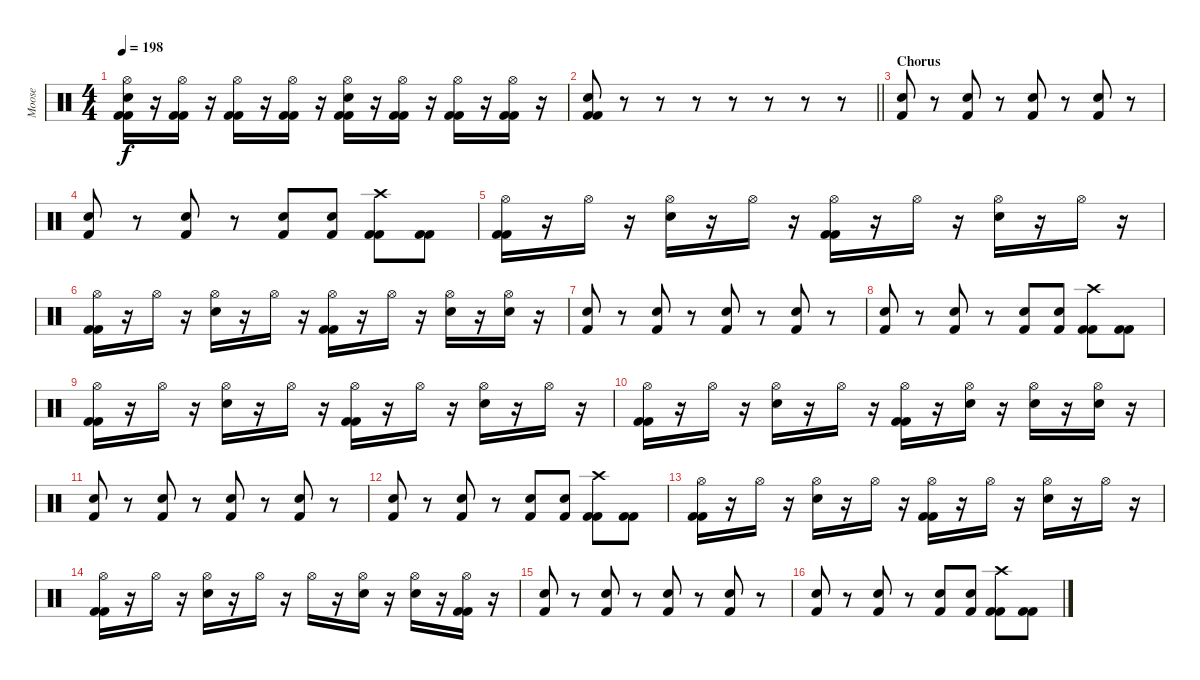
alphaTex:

\track ("Moose" "Moose") {instrument percussion}
\staff {score}
\articulation defaults
\ts (4 4)
\tempo 198
\clef neutral
\ks c
("Hi-Hat (open)" "Electric Snare (hit)" "Kick (hit) 2" "Kick (hit) 2").16{dy f} r.16 ("Hi-Hat (open)" "Kick (hit) 2" "Kick (hit) 2").16 r.16 ("Hi-Hat (open)" "Kick (hit) 2" "Kick (hit) 2").16 r.16 ("Hi-Hat (open)" "Kick (hit) 2" "Kick (hit) 2").16 r.16 ("Hi-Hat (open)" "Electric Snare (hit)" "Kick (hit) 2" "Kick (hit) 2").16 r.16 ("Hi-Hat (open)" "Kick (hit) 2" "Kick (hit) 2").16 r.16 ("Hi-Hat (open)" "Kick (hit) 2" "Kick (hit) 2").16 r.16 ("Hi-Hat (open)" "Kick (hit) 2" "Kick (hit) 2").16 r.16 |
\barLineRight lightlight
("Electric Snare (hit)" "Kick (hit) 2" "Kick (hit) 2").8 r.8 r.8 r.8 r.8 r.8 r.8 r.8 |
\section ("" "Chorus")
("Electric Snare (hit)" "Kick (hit) 2").8 r.8 ("Electric Snare (hit)" "Kick (hit) 2").8 r.8 ("Electric Snare (hit)" "Kick (hit) 2").8 r.8 ("Electric Snare (hit)" "Kick (hit) 2").8 r.8 |
("Electric Snare (hit)" "Kick (hit) 2").8 r.8 ("Electric Snare (hit)" "Kick (hit) 2").8 r.8 ("Electric Snare (hit)" "Kick (hit) 2").8 ("Electric Snare (hit)" "Kick (hit) 2").8 ("Crash high (hit)" "Kick (hit) 2" "Kick (hit) 2").8 ("Kick (hit) 2" "Kick (hit) 2").8 |
("Hi-Hat (open)" "Kick (hit) 2" "Kick (hit) 2").16 r.16 "Hi-Hat (open)".16 r.16 ("Hi-Hat (open)" "Electric Snare (hit)").16 r.16 "Hi-Hat (open)".16 r.16 ("Hi-Hat (open)" "Kick (hit) 2" "Kick (hit) 2").16 r.16 "Hi-Hat (open)".16 r.16 ("Hi-Hat (open)" "Electric Snare (hit)").16 r.16 "Hi-Hat (open)".16 r.16 |
("Hi-Hat (open)" "Kick (hit) 2" "Kick (hit) 2").16 r.16 "Hi-Hat (open)".16 r.16 ("Hi-Hat (open)" "Electric Snare (hit)").16 r.16 "Hi-Hat (open)".16 r.16 ("Hi-Hat (open)" "Kick (hit) 2" "Kick (hit) 2").16 r.16 "Hi-Hat (open)".16 r.16 ("Hi-Hat (open)" "Electric Snare (hit)").16 r.16 ("Hi-Hat (open)" "Electric Snare (hit)").16 r.16 |
("Electric Snare (hit)" "Kick (hit) 2").8 r.8 ("Electric Snare (hit)" "Kick (hit) 2").8 r.8 ("Electric Snare (hit)" "Kick (hit) 2").8 r.8 ("Electric Snare (hit)" "Kick (hit) 2").8 r.8 |
("Electric Snare (hit)" "Kick (hit) 2").8 r.8 ("Electric Snare (hit)" "Kick (hit) 2").8 r.8 ("Electric Snare (hit)" "Kick (hit) 2").8 ("Electric Snare (hit)" "Kick (hit) 2").8 ("Crash high (hit)" "Kick (hit) 2" "Kick (hit) 2").8 ("Kick (hit) 2" "Kick (hit) 2").8 |
("Hi-Hat (open)" "Kick (hit) 2" "Kick (hit) 2").16 r.16 "Hi-Hat (open)".16 r.16 ("Hi-Hat (open)" "Electric Snare (hit)").16 r.16 "Hi-Hat (open)".16 r.16 ("Hi-Hat (open)" "Kick (hit) 2" "Kick (hit) 2").16 r.16 "Hi-Hat (open)".16 r.16 ("Hi-Hat (open)" "Electric Snare (hit)").16 r.16 "Hi-Hat (open)".16 r.16 |
("Hi-Hat (open)" "Kick (hit) 2" "Kick (hit) 2").16 r.16 "Hi-Hat (open)".16 r.16 ("Hi-Hat (open)" "Electric Snare (hit)").16 r.16 "Hi-Hat (open)".16 r.16 ("Hi-Hat (open)" "Kick (hit) 2" "Kick (hit) 2").16 r.16 ("Hi-Hat (open)" "Electric Snare (hit)").16 r.16 ("Hi-Hat (open)" "Electric Snare (hit)").16 r.16 ("Hi-Hat (open)" "Electric Snare (hit)").16 r.16 |
("Electric Snare (hit)" "Kick (hit) 2").8 r.8 ("Electric Snare (hit)" "Kick (hit) 2").8 r.8 ("Electric Snare (hit)" "Kick (hit) 2").8 r.8 ("Electric Snare (hit)" "Kick (hit) 2").8 r.8 |
("Electric Snare (hit)" "Kick (hit) 2").8 r.8 ("Electric Snare (hit)" "Kick (hit) 2").8 r.8 ("Electric Snare (hit)" "Kick (hit) 2").8 ("Electric Snare (hit)" "Kick (hit) 2").8 ("Crash high (hit)" "Kick (hit) 2" "Kick (hit) 2").8 ("Kick (hit) 2" "Kick (hit) 2").8 |
("Hi-Hat (open)" "Kick (hit) 2" "Kick (hit) 2").16 r.16 "Hi-Hat (open)".16 r.16 ("Hi-Hat (open)" "Electric Snare (hit)").16 r.16 "Hi-Hat (open)".16 r.16 ("Hi-Hat (open)" "Kick (hit) 2" "Kick (hit) 2").16 r.16 "Hi-Hat (open)".16 r.16 ("Hi-Hat (open)" "Electric Snare (hit)").16 r.16 "Hi-Hat (open)".16 r.16 |
("Hi-Hat (open)" "Kick (hit) 2" "Kick (hit) 2").16 r.16 "Hi-Hat (open)".16 r.16 ("Hi-Hat (open)" "Electric Snare (hit)").16 r.16 "Hi-Hat (open)".16 r.16 "Hi-Hat (open)".16 r.16 ("Hi-Hat (open)" "Electric Snare (hit)").16 r.16 ("Hi-Hat (open)" "Electric Snare (hit)").16 r.16 ("Hi-Hat (open)" "Kick (hit) 2" "Kick (hit) 2").16 r.16 |
("Electric Snare (hit)" "Kick (hit) 2").8 r.8 ("Electric Snare (hit)" "Kick (hit) 2").8 r.8 ("Electric Snare (hit)" "Kick (hit) 2").8 r.8 ("Electric Snare (hit)" "Kick (hit) 2").8 r.8 |
("Electric Snare (hit)" "Kick (hit) 2").8 r.8 ("Electric Snare (hit)" "Kick (hit) 2").8 r.8 ("Electric Snare (hit)" "Kick (hit) 2").8 ("Electric Snare (hit)" "Kick (hit) 2").8 ("Crash high (hit)" "Kick (hit) 2" "Kick (hit) 2").8 ("Kick (hit) 2" "Kick (hit) 2").8
